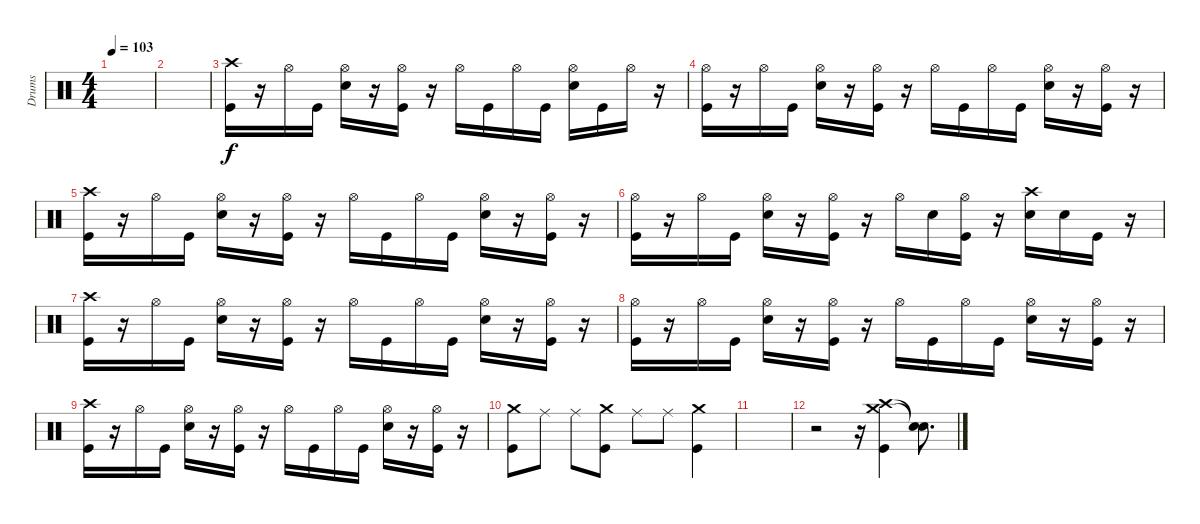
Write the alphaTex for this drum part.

\track ("Drums" "Drums") {instrument percussion}
\staff {score}
\articulation defaults
\ts (4 4)
\tempo 103
\clef neutral
\ks c
|
|
("Crash high (hit)" "Kick (hit)").16 r.16 "Hi-Hat (open)".16 "Kick (hit)".16 ("Hi-Hat (open)" "Electric Snare (hit)").16 r.16 ("Hi-Hat (open)" "Kick (hit)").16 r.16 "Hi-Hat (open)".16 "Kick (hit)".16 "Hi-Hat (open)".16 "Kick (hit)".16 ("Hi-Hat (open)" "Electric Snare (hit)").16 "Kick (hit)".16 "Hi-Hat (open)".16 r.16 |
("Hi-Hat (open)" "Kick (hit)").16 r.16 "Hi-Hat (open)".16 "Kick (hit)".16 ("Hi-Hat (open)" "Electric Snare (hit)").16 r.16 ("Hi-Hat (open)" "Kick (hit)").16 r.16 "Hi-Hat (open)".16 "Kick (hit)".16 "Hi-Hat (open)".16 "Kick (hit)".16 ("Hi-Hat (open)" "Electric Snare (hit)").16 r.16 ("Hi-Hat (open)" "Kick (hit)").16 r.16 |
("Crash high (hit)" "Kick (hit)").16 r.16 "Hi-Hat (open)".16 "Kick (hit)".16 ("Hi-Hat (open)" "Electric Snare (hit)").16 r.16 ("Hi-Hat (open)" "Kick (hit)").16 r.16 "Hi-Hat (open)".16 "Kick (hit)".16 "Hi-Hat (open)".16 "Kick (hit)".16 ("Hi-Hat (open)" "Electric Snare (hit)").16 r.16 ("Hi-Hat (open)" "Kick (hit)").16 r.16 |
("Hi-Hat (open)" "Kick (hit)").16 r.16 "Hi-Hat (open)".16 "Kick (hit)".16 ("Hi-Hat (open)" "Electric Snare (hit)").16 r.16 ("Hi-Hat (open)" "Kick (hit)").16 r.16 "Hi-Hat (open)".16 "Electric Snare (hit)".16 ("Hi-Hat (open)" "Kick (hit)").16 r.16 ("Crash high (hit)" "Electric Snare (hit)").16 "Electric Snare (hit)".16 "Kick (hit)".16 r.16 |
("Crash high (hit)" "Kick (hit)").16 r.16 "Hi-Hat (open)".16 "Kick (hit)".16 ("Hi-Hat (open)" "Electric Snare (hit)").16 r.16 ("Hi-Hat (open)" "Kick (hit)").16 r.16 "Hi-Hat (open)".16 "Kick (hit)".16 "Hi-Hat (open)".16 "Kick (hit)".16 ("Hi-Hat (open)" "Electric Snare (hit)").16 r.16 ("Hi-Hat (open)" "Kick (hit)").16 r.16 |
("Hi-Hat (open)" "Kick (hit)").16 r.16 "Hi-Hat (open)".16 "Kick (hit)".16 ("Hi-Hat (open)" "Electric Snare (hit)").16 r.16 ("Hi-Hat (open)" "Kick (hit)").16 r.16 "Hi-Hat (open)".16 "Kick (hit)".16 "Hi-Hat (open)".16 "Kick (hit)".16 ("Hi-Hat (open)" "Electric Snare (hit)").16 r.16 ("Hi-Hat (open)" "Kick (hit)").16 r.16 |
("Crash high (hit)" "Kick (hit)").16 r.16 "Hi-Hat (open)".16 "Kick (hit)".16 ("Hi-Hat (open)" "Electric Snare (hit)").16 r.16 ("Hi-Hat (open)" "Kick (hit)").16 r.16 "Hi-Hat (open)".16 "Kick (hit)".16 "Hi-Hat (open)".16 "Kick (hit)".16 ("Hi-Hat (open)" "Electric Snare (hit)").16 r.16 ("Hi-Hat (open)" "Kick (hit)").16 r.16 |
("Crash medium (hit)" "Kick (hit)").8 "Ride (middle)".8 "Ride (middle)".8 ("Crash medium (hit)" "Kick (hit)").8 "Ride (middle)".8 "Ride (middle)".8 ("Crash medium (hit)" "Kick (hit)").4 |
|
r.2 r.16 ("Crash medium (hit)" "Crash high (hit)" "Kick (hit)").4 ("Snare (hit)"{t} "Snare (hit)"{t}).8{d}
